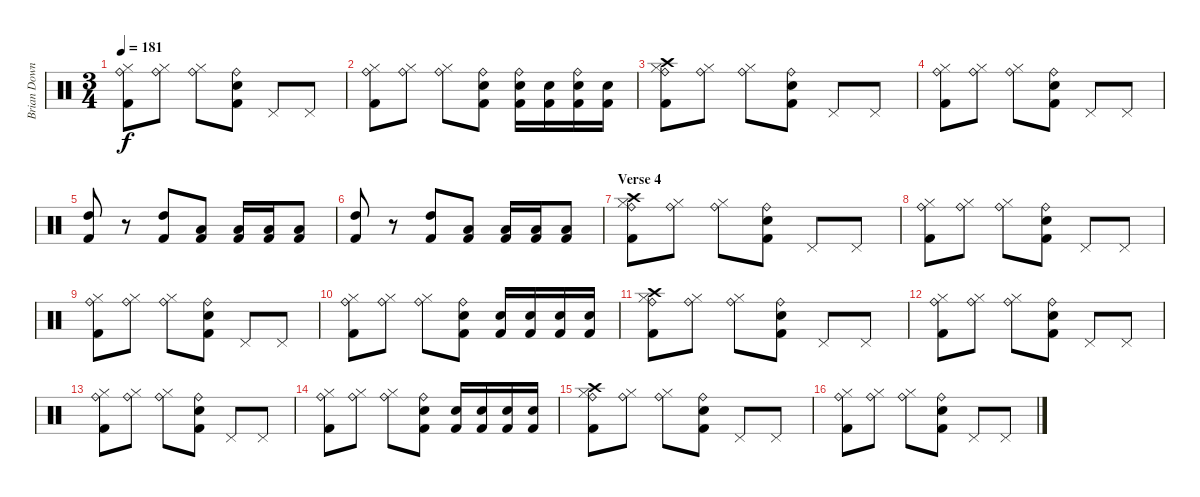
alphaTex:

\track ("Brian Downey" "Brian Down") {instrument percussion}
\staff {score}
\articulation defaults
\ts (3 4)
\tempo 181
\clef neutral
\ks c
("Ride (bell)" "Hi-Hat (closed)" "Kick (hit) 2").8{dy f} ("Ride (bell)" "Hi-Hat (closed)").8 ("Ride (bell)" "Hi-Hat (closed)").8 ("Ride (bell)" "Snare (hit) 2" "Kick (hit) 2").8 "Pedal Hi-Hat (hit)".8 "Pedal Hi-Hat (hit)".8 |
("Ride (bell)" "Hi-Hat (closed)" "Kick (hit) 2").8 ("Ride (bell)" "Hi-Hat (closed)").8 ("Ride (bell)" "Hi-Hat (closed)").8 ("Ride (bell)" "Snare (hit) 2" "Kick (hit) 2").8 ("Ride (bell)" "Snare (hit) 2" "Kick (hit) 2").16 ("Snare (hit) 2" "Kick (hit) 2").16 ("Ride (bell)" "Snare (hit) 2" "Kick (hit) 2").16 ("Snare (hit) 2" "Kick (hit) 2").16 |
("Crash high (hit)" "Ride (bell)" "Hi-Hat (closed)" "Kick (hit) 2").8 ("Ride (bell)" "Hi-Hat (closed)").8 ("Ride (bell)" "Hi-Hat (closed)").8 ("Ride (bell)" "Snare (hit) 2" "Kick (hit) 2").8 "Pedal Hi-Hat (hit)".8 "Pedal Hi-Hat (hit)".8 |
("Ride (bell)" "Hi-Hat (closed)" "Kick (hit) 2").8 ("Ride (bell)" "Hi-Hat (closed)").8 ("Ride (bell)" "Hi-Hat (closed)").8 ("Ride (bell)" "Snare (hit) 2" "Kick (hit) 2").8 "Pedal Hi-Hat (hit)".8 "Pedal Hi-Hat (hit)".8 |
("High Tom (hit)" "Kick (hit) 2").8 r.8 ("High Tom (hit)" "Kick (hit) 2").8 ("Low Tom (hit)" "Kick (hit) 2").8 ("Low Tom (hit)" "Kick (hit) 2").16 ("Low Tom (hit)" "Kick (hit) 2").16 ("Low Tom (hit)" "Kick (hit) 2").8 |
("High Tom (hit)" "Kick (hit) 2").8 r.8 ("High Tom (hit)" "Kick (hit) 2").8 ("Low Tom (hit)" "Kick (hit) 2").8 ("Low Tom (hit)" "Kick (hit) 2").16 ("Low Tom (hit)" "Kick (hit) 2").16 ("Low Tom (hit)" "Kick (hit) 2").8 |
\section ("" "Verse 4")
("Crash high (hit)" "Ride (bell)" "Hi-Hat (closed)" "Kick (hit) 2").8 ("Ride (bell)" "Hi-Hat (closed)").8 ("Ride (bell)" "Hi-Hat (closed)").8 ("Ride (bell)" "Snare (hit) 2" "Kick (hit) 2").8 "Pedal Hi-Hat (hit)".8 "Pedal Hi-Hat (hit)".8 |
("Ride (bell)" "Hi-Hat (closed)" "Kick (hit) 2").8 ("Ride (bell)" "Hi-Hat (closed)").8 ("Ride (bell)" "Hi-Hat (closed)").8 ("Ride (bell)" "Snare (hit) 2" "Kick (hit) 2").8 "Pedal Hi-Hat (hit)".8 "Pedal Hi-Hat (hit)".8 |
("Ride (bell)" "Hi-Hat (closed)" "Kick (hit) 2").8 ("Ride (bell)" "Hi-Hat (closed)").8 ("Ride (bell)" "Hi-Hat (closed)").8 ("Ride (bell)" "Snare (hit) 2" "Kick (hit) 2").8 "Pedal Hi-Hat (hit)".8 "Pedal Hi-Hat (hit)".8 |
("Ride (bell)" "Hi-Hat (closed)" "Kick (hit) 2").8 ("Ride (bell)" "Hi-Hat (closed)").8 ("Ride (bell)" "Hi-Hat (closed)").8 ("Ride (bell)" "Snare (hit) 2" "Kick (hit) 2").8 ("Snare (hit) 2" "Kick (hit) 2").16 ("Snare (hit) 2" "Kick (hit) 2").16 ("Snare (hit) 2" "Kick (hit) 2").16 ("Snare (hit) 2" "Kick (hit) 2").16 |
("Crash high (hit)" "Ride (bell)" "Hi-Hat (closed)" "Kick (hit) 2").8 ("Ride (bell)" "Hi-Hat (closed)").8 ("Ride (bell)" "Hi-Hat (closed)").8 ("Ride (bell)" "Snare (hit) 2" "Kick (hit) 2").8 "Pedal Hi-Hat (hit)".8 "Pedal Hi-Hat (hit)".8 |
("Ride (bell)" "Hi-Hat (closed)" "Kick (hit) 2").8 ("Ride (bell)" "Hi-Hat (closed)").8 ("Ride (bell)" "Hi-Hat (closed)").8 ("Ride (bell)" "Snare (hit) 2" "Kick (hit) 2").8 "Pedal Hi-Hat (hit)".8 "Pedal Hi-Hat (hit)".8 |
("Ride (bell)" "Hi-Hat (closed)" "Kick (hit) 2").8 ("Ride (bell)" "Hi-Hat (closed)").8 ("Ride (bell)" "Hi-Hat (closed)").8 ("Ride (bell)" "Snare (hit) 2" "Kick (hit) 2").8 "Pedal Hi-Hat (hit)".8 "Pedal Hi-Hat (hit)".8 |
("Ride (bell)" "Hi-Hat (closed)" "Kick (hit) 2").8 ("Ride (bell)" "Hi-Hat (closed)").8 ("Ride (bell)" "Hi-Hat (closed)").8 ("Ride (bell)" "Snare (hit) 2" "Kick (hit) 2").8 ("Snare (hit) 2" "Kick (hit) 2").16 ("Snare (hit) 2" "Kick (hit) 2").16 ("Snare (hit) 2" "Kick (hit) 2").16 ("Snare (hit) 2" "Kick (hit) 2").16 |
("Crash high (hit)" "Ride (bell)" "Hi-Hat (closed)" "Kick (hit) 2").8 ("Ride (bell)" "Hi-Hat (closed)").8 ("Ride (bell)" "Hi-Hat (closed)").8 ("Ride (bell)" "Snare (hit) 2" "Kick (hit) 2").8 "Pedal Hi-Hat (hit)".8 "Pedal Hi-Hat (hit)".8 |
("Ride (bell)" "Hi-Hat (closed)" "Kick (hit) 2").8 ("Ride (bell)" "Hi-Hat (closed)").8 ("Ride (bell)" "Hi-Hat (closed)").8 ("Ride (bell)" "Snare (hit) 2" "Kick (hit) 2").8 "Pedal Hi-Hat (hit)".8 "Pedal Hi-Hat (hit)".8
